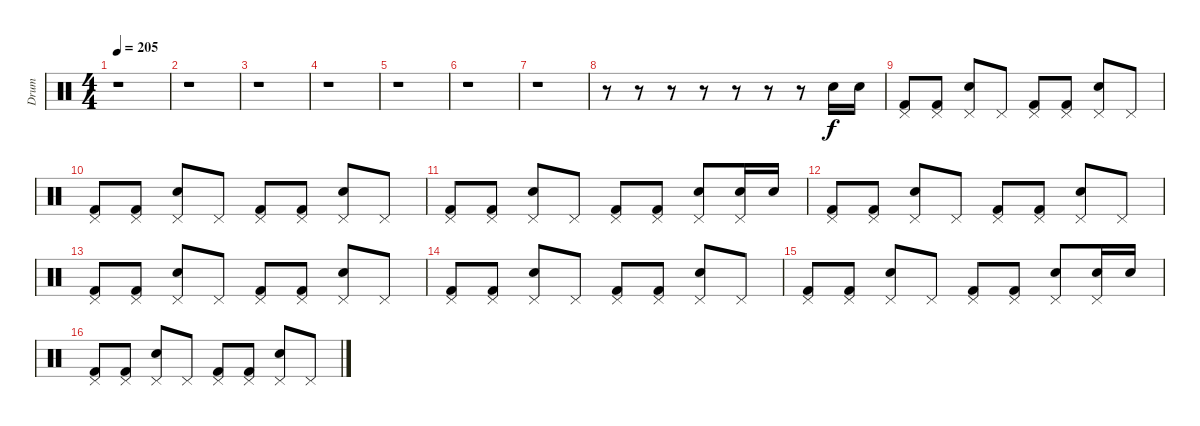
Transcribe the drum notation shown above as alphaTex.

\track ("Drum" "Drum") {instrument percussion}
\staff {score}
\articulation defaults
\ts (4 4)
\tempo 205
\clef neutral
\ks c
r.1{dy f} |
r.1 |
r.1 |
r.1 |
r.1 |
r.1 |
r.1 |
r.8 r.8 r.8 r.8 r.8 r.8 r.8 "Snare (hit) 2".16 "Snare (hit) 2".16 |
("Pedal Hi-Hat (hit)" "Kick (hit) 2").8 ("Pedal Hi-Hat (hit)" "Kick (hit) 2").8 ("Pedal Hi-Hat (hit)" "Snare (hit) 2").8 "Pedal Hi-Hat (hit)".8 ("Pedal Hi-Hat (hit)" "Kick (hit) 2").8 ("Pedal Hi-Hat (hit)" "Kick (hit) 2").8 ("Pedal Hi-Hat (hit)" "Snare (hit) 2").8 "Pedal Hi-Hat (hit)".8 |
("Pedal Hi-Hat (hit)" "Kick (hit) 2").8 ("Pedal Hi-Hat (hit)" "Kick (hit) 2").8 ("Pedal Hi-Hat (hit)" "Snare (hit) 2").8 "Pedal Hi-Hat (hit)".8 ("Pedal Hi-Hat (hit)" "Kick (hit) 2").8 ("Pedal Hi-Hat (hit)" "Kick (hit) 2").8 ("Pedal Hi-Hat (hit)" "Snare (hit) 2").8 "Pedal Hi-Hat (hit)".8 |
("Pedal Hi-Hat (hit)" "Kick (hit) 2").8 ("Pedal Hi-Hat (hit)" "Kick (hit) 2").8 ("Pedal Hi-Hat (hit)" "Snare (hit) 2").8 "Pedal Hi-Hat (hit)".8 ("Pedal Hi-Hat (hit)" "Kick (hit) 2").8 ("Pedal Hi-Hat (hit)" "Kick (hit) 2").8 ("Pedal Hi-Hat (hit)" "Snare (hit) 2").8 ("Pedal Hi-Hat (hit)" "Snare (hit) 2").16 "Snare (hit) 2".16 |
("Pedal Hi-Hat (hit)" "Kick (hit) 2").8 ("Pedal Hi-Hat (hit)" "Kick (hit) 2").8 ("Pedal Hi-Hat (hit)" "Snare (hit) 2").8 "Pedal Hi-Hat (hit)".8 ("Pedal Hi-Hat (hit)" "Kick (hit) 2").8 ("Pedal Hi-Hat (hit)" "Kick (hit) 2").8 ("Pedal Hi-Hat (hit)" "Snare (hit) 2").8 "Pedal Hi-Hat (hit)".8 |
("Pedal Hi-Hat (hit)" "Kick (hit) 2").8 ("Pedal Hi-Hat (hit)" "Kick (hit) 2").8 ("Pedal Hi-Hat (hit)" "Snare (hit) 2").8 "Pedal Hi-Hat (hit)".8 ("Pedal Hi-Hat (hit)" "Kick (hit) 2").8 ("Pedal Hi-Hat (hit)" "Kick (hit) 2").8 ("Pedal Hi-Hat (hit)" "Snare (hit) 2").8 "Pedal Hi-Hat (hit)".8 |
("Pedal Hi-Hat (hit)" "Kick (hit) 2").8 ("Pedal Hi-Hat (hit)" "Kick (hit) 2").8 ("Pedal Hi-Hat (hit)" "Snare (hit) 2").8 "Pedal Hi-Hat (hit)".8 ("Pedal Hi-Hat (hit)" "Kick (hit) 2").8 ("Pedal Hi-Hat (hit)" "Kick (hit) 2").8 ("Pedal Hi-Hat (hit)" "Snare (hit) 2").8 "Pedal Hi-Hat (hit)".8 |
("Pedal Hi-Hat (hit)" "Kick (hit) 2").8 ("Pedal Hi-Hat (hit)" "Kick (hit) 2").8 ("Pedal Hi-Hat (hit)" "Snare (hit) 2").8 "Pedal Hi-Hat (hit)".8 ("Pedal Hi-Hat (hit)" "Kick (hit) 2").8 ("Pedal Hi-Hat (hit)" "Kick (hit) 2").8 ("Pedal Hi-Hat (hit)" "Snare (hit) 2").8 ("Pedal Hi-Hat (hit)" "Snare (hit) 2").16 "Snare (hit) 2".16 |
("Pedal Hi-Hat (hit)" "Kick (hit) 2").8 ("Pedal Hi-Hat (hit)" "Kick (hit) 2").8 ("Pedal Hi-Hat (hit)" "Snare (hit) 2").8 "Pedal Hi-Hat (hit)".8 ("Pedal Hi-Hat (hit)" "Kick (hit) 2").8 ("Pedal Hi-Hat (hit)" "Kick (hit) 2").8 ("Pedal Hi-Hat (hit)" "Snare (hit) 2").8 "Pedal Hi-Hat (hit)".8
